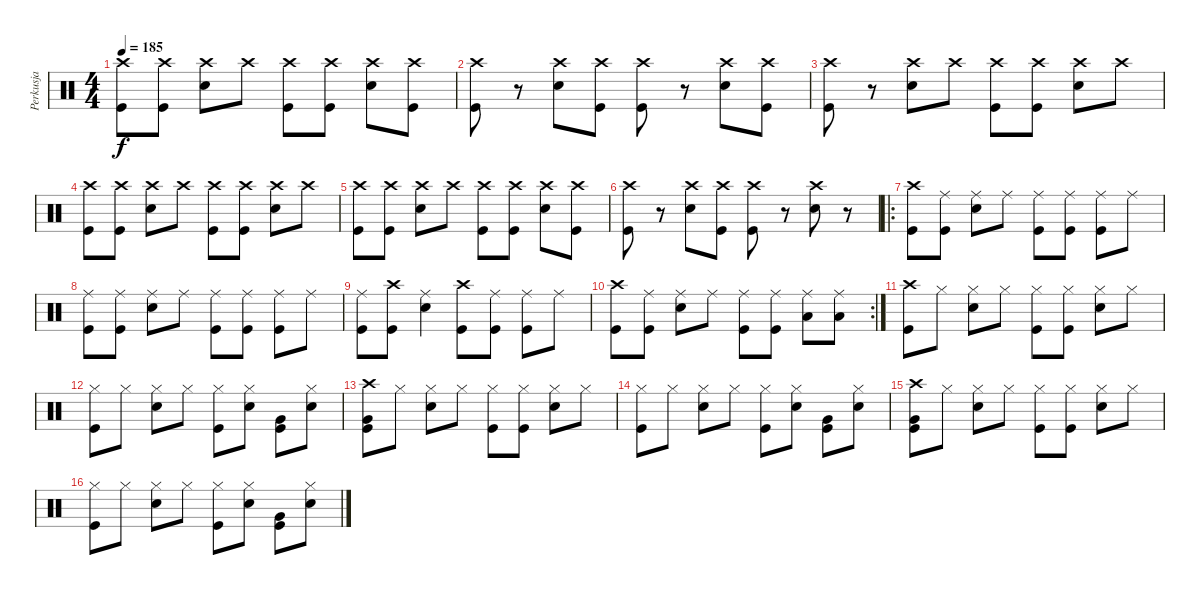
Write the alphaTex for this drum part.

\track ("Perkusja" "Perkusja") {instrument percussion}
\staff {score}
\articulation defaults
\ts (4 4)
\tempo 185
\clef neutral
\ks c
("Crash high (hit)" "Kick (hit)").8{dy f} ("Crash high (hit)" "Kick (hit)").8 ("Crash high (hit)" "Snare (hit) 2").8 "Crash high (hit)".8 ("Crash high (hit)" "Kick (hit)").8 ("Crash high (hit)" "Kick (hit)").8 ("Crash high (hit)" "Snare (hit) 2").8 ("Crash high (hit)" "Kick (hit)").8 |
("Crash high (hit)" "Kick (hit)").8 r.8 ("Crash high (hit)" "Snare (hit) 2").8 ("Crash high (hit)" "Kick (hit)").8 ("Crash high (hit)" "Kick (hit)").8 r.8 ("Crash high (hit)" "Snare (hit) 2").8 ("Crash high (hit)" "Kick (hit)").8 |
("Crash high (hit)" "Kick (hit)").8 r.8 ("Crash high (hit)" "Snare (hit) 2").8 "Crash high (hit)".8 ("Crash high (hit)" "Kick (hit)").8 ("Crash high (hit)" "Kick (hit)").8 ("Crash high (hit)" "Snare (hit) 2").8 "Crash high (hit)".8 |
("Crash high (hit)" "Kick (hit)").8 ("Crash high (hit)" "Kick (hit)").8 ("Crash high (hit)" "Snare (hit) 2").8 "Crash high (hit)".8 ("Crash high (hit)" "Kick (hit)").8 ("Crash high (hit)" "Kick (hit)").8 ("Crash high (hit)" "Snare (hit) 2").8 "Crash high (hit)".8 |
("Crash high (hit)" "Kick (hit)").8 ("Crash high (hit)" "Kick (hit)").8 ("Crash high (hit)" "Snare (hit) 2").8 "Crash high (hit)".8 ("Crash high (hit)" "Kick (hit)").8 ("Crash high (hit)" "Kick (hit)").8 ("Crash high (hit)" "Snare (hit) 2").8 ("Crash high (hit)" "Kick (hit)").8 |
("Crash high (hit)" "Kick (hit)").8 r.8 ("Crash high (hit)" "Snare (hit) 2").8 ("Crash high (hit)" "Kick (hit)").8 ("Crash high (hit)" "Kick (hit)").8 r.8 ("Crash high (hit)" "Snare (hit) 2").8 r.8 |
\ro
("Crash high (hit)" "Kick (hit)").8 ("Ride (middle)" "Kick (hit)").8 ("Ride (middle)" "Snare (hit) 2").8 "Ride (middle)".8 ("Ride (middle)" "Kick (hit)").8 ("Ride (middle)" "Kick (hit)").8 ("Ride (middle)" "Kick (hit)").8 "Ride (middle)".8 |
("Ride (middle)" "Kick (hit)").8 ("Ride (middle)" "Kick (hit)").8 ("Ride (middle)" "Snare (hit) 2").8 "Ride (middle)".8 ("Ride (middle)" "Kick (hit)").8 ("Ride (middle)" "Kick (hit)").8 ("Ride (middle)" "Kick (hit)").8 "Ride (middle)".8 |
("Ride (middle)" "Kick (hit)").8 ("Crash high (hit)" "Kick (hit)").8 ("Ride (middle)" "Snare (hit) 2").4 ("Crash high (hit)" "Kick (hit)").8 ("Ride (middle)" "Kick (hit)").8 ("Ride (middle)" "Kick (hit)").8 "Ride (middle)".8 |
\rc 2
("Crash high (hit)" "Kick (hit)").8 ("Ride (middle)" "Kick (hit)").8 ("Ride (middle)" "Snare (hit) 2").8 "Ride (middle)".8 ("Ride (middle)" "Kick (hit)").8 ("Ride (middle)" "Kick (hit)").8 ("Ride (middle)" "Low Floor Tom (hit)").8 ("Ride (middle)" "Low Floor Tom (hit)").8 |
("Crash high (hit)" "Kick (hit)").8 "Hi-Hat (closed)".8 ("Hi-Hat (closed)" "Snare (hit) 2").8 "Hi-Hat (closed)".8 ("Hi-Hat (closed)" "Kick (hit)").8 ("Hi-Hat (closed)" "Kick (hit)").8 ("Hi-Hat (closed)" "Snare (hit) 2").8 "Hi-Hat (closed)".8 |
("Hi-Hat (closed)" "Kick (hit)").8 "Hi-Hat (closed)".8 ("Hi-Hat (closed)" "Snare (hit) 2").8 "Hi-Hat (closed)".8 ("Hi-Hat (closed)" "Kick (hit)").8 ("Hi-Hat (closed)" "Snare (hit) 2").8 ("Very Low Tom (hit)" "Kick (hit)").8 ("Hi-Hat (closed)" "Snare (hit) 2").8 |
("Crash high (hit)" "Very Low Tom (hit)" "Kick (hit)").8 "Hi-Hat (closed)".8 ("Hi-Hat (closed)" "Snare (hit) 2").8 "Hi-Hat (closed)".8 ("Hi-Hat (closed)" "Kick (hit)").8 ("Hi-Hat (closed)" "Kick (hit)").8 ("Hi-Hat (closed)" "Snare (hit) 2").8 "Hi-Hat (closed)".8 |
("Hi-Hat (closed)" "Kick (hit)").8 "Hi-Hat (closed)".8 ("Hi-Hat (closed)" "Snare (hit) 2").8 "Hi-Hat (closed)".8 ("Hi-Hat (closed)" "Kick (hit)").8 ("Hi-Hat (closed)" "Snare (hit) 2").8 ("Very Low Tom (hit)" "Kick (hit)").8 ("Hi-Hat (closed)" "Snare (hit) 2").8 |
("Crash high (hit)" "Very Low Tom (hit)" "Kick (hit)").8 "Hi-Hat (closed)".8 ("Hi-Hat (closed)" "Snare (hit) 2").8 "Hi-Hat (closed)".8 ("Hi-Hat (closed)" "Kick (hit)").8 ("Hi-Hat (closed)" "Kick (hit)").8 ("Hi-Hat (closed)" "Snare (hit) 2").8 "Hi-Hat (closed)".8 |
("Hi-Hat (closed)" "Kick (hit)").8 "Hi-Hat (closed)".8 ("Hi-Hat (closed)" "Snare (hit) 2").8 "Hi-Hat (closed)".8 ("Hi-Hat (closed)" "Kick (hit)").8 ("Hi-Hat (closed)" "Snare (hit) 2").8 ("Very Low Tom (hit)" "Kick (hit)").8 ("Hi-Hat (closed)" "Snare (hit) 2").8
